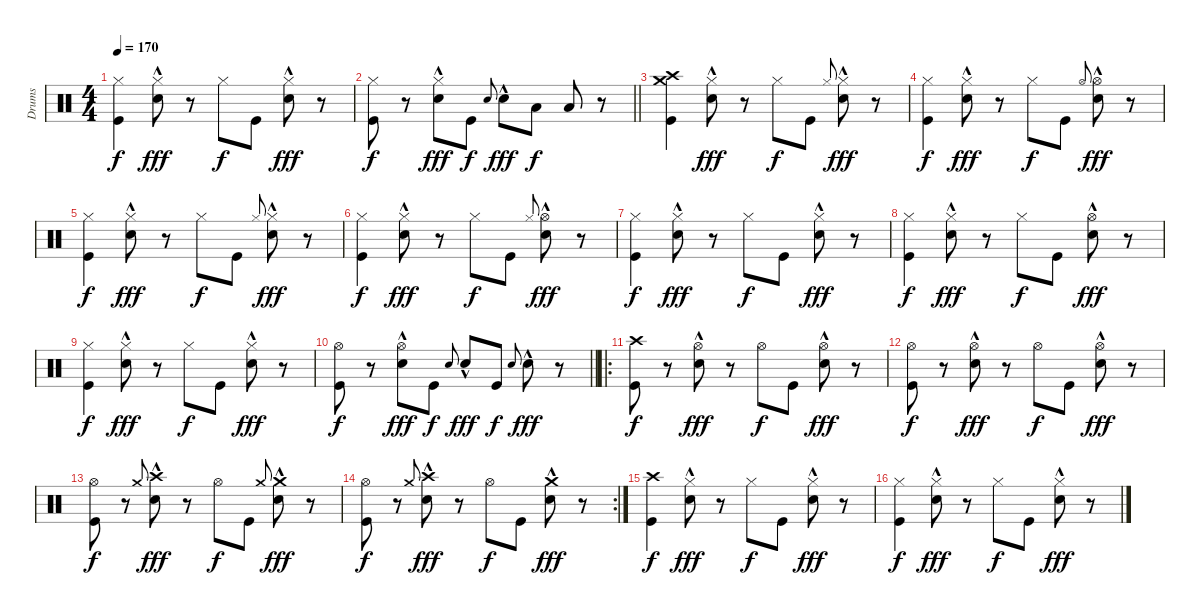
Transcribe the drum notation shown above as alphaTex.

\track ("Drums" "Drums") {instrument percussion}
\staff {score}
\articulation defaults
\ts (4 4)
\tempo 170
\clef neutral
\ks c
("Hi-Hat (closed)" "Kick (hit)").4{dy f} ("Hi-Hat (closed)" "Electric Snare (hit)"{hac}).8{dy fff} r.8 "Hi-Hat (closed)".8{dy f} "Kick (hit)".8 ("Hi-Hat (closed)" "Electric Snare (hit)"{hac}).8{dy fff} r.8 |
\barLineRight lightlight
("Hi-Hat (closed)" "Kick (hit)").8{dy f} r.8 ("Hi-Hat (closed)" "Electric Snare (hit)"{hac}).8{dy fff} "Kick (hit)".8{dy f} "Electric Snare (hit)".8{gr onbeat} "Electric Snare (hit)"{hac}.8{dy fff} "Low Tom (hit)".8{dy f} "Low Floor Tom (hit)".8 r.8 |
("Crash high (hit)" "Crash medium (hit)" "Kick (hit)").4 ("Hi-Hat (closed)" "Electric Snare (hit)"{hac}).8{dy fff} r.8 "Hi-Hat (closed)".8{dy f} "Kick (hit)".8 "Hi-Hat (closed)".8{gr onbeat} ("Hi-Hat (closed)" "Electric Snare (hit)"{hac}).8{dy fff} r.8 |
("Hi-Hat (closed)" "Kick (hit)").4{dy f} ("Hi-Hat (closed)" "Electric Snare (hit)"{hac}).8{dy fff} r.8 "Hi-Hat (closed)".8{dy f} "Kick (hit)".8 "Hi-Hat (open)".8{gr onbeat} ("Hi-Hat (open)" "Electric Snare (hit)"{hac}).8{dy fff} r.8 |
("Hi-Hat (closed)" "Kick (hit)").4{dy f} ("Hi-Hat (closed)" "Electric Snare (hit)"{hac}).8{dy fff} r.8 "Hi-Hat (closed)".8{dy f} "Kick (hit)".8 "Hi-Hat (closed)".8{gr onbeat} ("Hi-Hat (closed)" "Electric Snare (hit)"{hac}).8{dy fff} r.8 |
("Hi-Hat (closed)" "Kick (hit)").4{dy f} ("Hi-Hat (closed)" "Electric Snare (hit)"{hac}).8{dy fff} r.8 "Hi-Hat (closed)".8{dy f} "Kick (hit)".8 "Hi-Hat (closed)".8{gr onbeat} ("Hi-Hat (open)" "Electric Snare (hit)"{hac}).8{dy fff} r.8 |
("Hi-Hat (closed)" "Kick (hit)").4{dy f} ("Hi-Hat (closed)" "Electric Snare (hit)"{hac}).8{dy fff} r.8 "Hi-Hat (closed)".8{dy f} "Kick (hit)".8 ("Hi-Hat (closed)" "Electric Snare (hit)"{hac}).8{dy fff} r.8 |
("Hi-Hat (closed)" "Kick (hit)").4{dy f} ("Hi-Hat (closed)" "Electric Snare (hit)"{hac}).8{dy fff} r.8 "Hi-Hat (closed)".8{dy f} "Kick (hit)".8 ("Hi-Hat (open)" "Electric Snare (hit)"{hac}).8{dy fff} r.8 |
("Hi-Hat (closed)" "Kick (hit)").4{dy f} ("Hi-Hat (closed)" "Electric Snare (hit)"{hac}).8{dy fff} r.8 "Hi-Hat (closed)".8{dy f} "Kick (hit)".8 ("Hi-Hat (closed)" "Electric Snare (hit)"{hac}).8{dy fff} r.8 |
\barLineRight lightlight
("Hi-Hat (open)" "Kick (hit)").8{dy f} r.8 ("Hi-Hat (open)" "Electric Snare (hit)"{hac}).8{dy fff} "Kick (hit)".8{dy f} "Electric Snare (hit)".8{gr onbeat} "Electric Snare (hit)"{hac}.8{dy fff} "Kick (hit)".8{dy f} "Electric Snare (hit)".8{gr onbeat} "Electric Snare (hit)"{hac}.8{dy fff} r.8 |
\ro
("Crash high (hit)" "Kick (hit)").8{dy f} r.8 ("Hi-Hat (open)" "Electric Snare (hit)"{hac}).8{dy fff} r.8 "Hi-Hat (open)".8{dy f} "Kick (hit)".8 ("Hi-Hat (open)" "Electric Snare (hit)"{hac}).8{dy fff} r.8 |
("Hi-Hat (open)" "Kick (hit)").8{dy f} r.8 ("Hi-Hat (open)" "Electric Snare (hit)"{hac}).8{dy fff} r.8 "Hi-Hat (open)".8{dy f} "Kick (hit)".8 ("Hi-Hat (open)" "Electric Snare (hit)"{hac}).8{dy fff} r.8 |
("Hi-Hat (open)" "Kick (hit)").8{dy f} r.8 "Crash medium (hit)".8{gr onbeat} ("Crash high (hit)"{hac} "Electric Snare (hit)"{hac}).8{dy fff} r.8 "Hi-Hat (open)".8{dy f} "Kick (hit)".8 "Crash medium (hit)".8{gr onbeat} ("Crash medium (hit)"{hac} "Electric Snare (hit)"{hac}).8{dy fff} r.8 |
\rc 2
("Hi-Hat (open)" "Kick (hit)").8{dy f} r.8 "Crash medium (hit)".8{gr onbeat} ("Crash high (hit)"{hac} "Electric Snare (hit)"{hac}).8{dy fff} r.8 "Hi-Hat (open)".8{dy f} "Kick (hit)".8 ("Crash medium (hit)"{hac} "Electric Snare (hit)"{hac}).8{dy fff} r.8 |
("Crash high (hit)" "Kick (hit)").4{dy f} ("Hi-Hat (closed)" "Electric Snare (hit)"{hac}).8{dy fff} r.8 "Hi-Hat (closed)".8{dy f} "Kick (hit)".8 ("Hi-Hat (closed)" "Electric Snare (hit)"{hac}).8{dy fff} r.8 |
("Hi-Hat (closed)" "Kick (hit)").4{dy f} ("Hi-Hat (closed)" "Electric Snare (hit)"{hac}).8{dy fff} r.8 "Hi-Hat (closed)".8{dy f} "Kick (hit)".8 ("Hi-Hat (closed)" "Electric Snare (hit)"{hac}).8{dy fff} r.8
